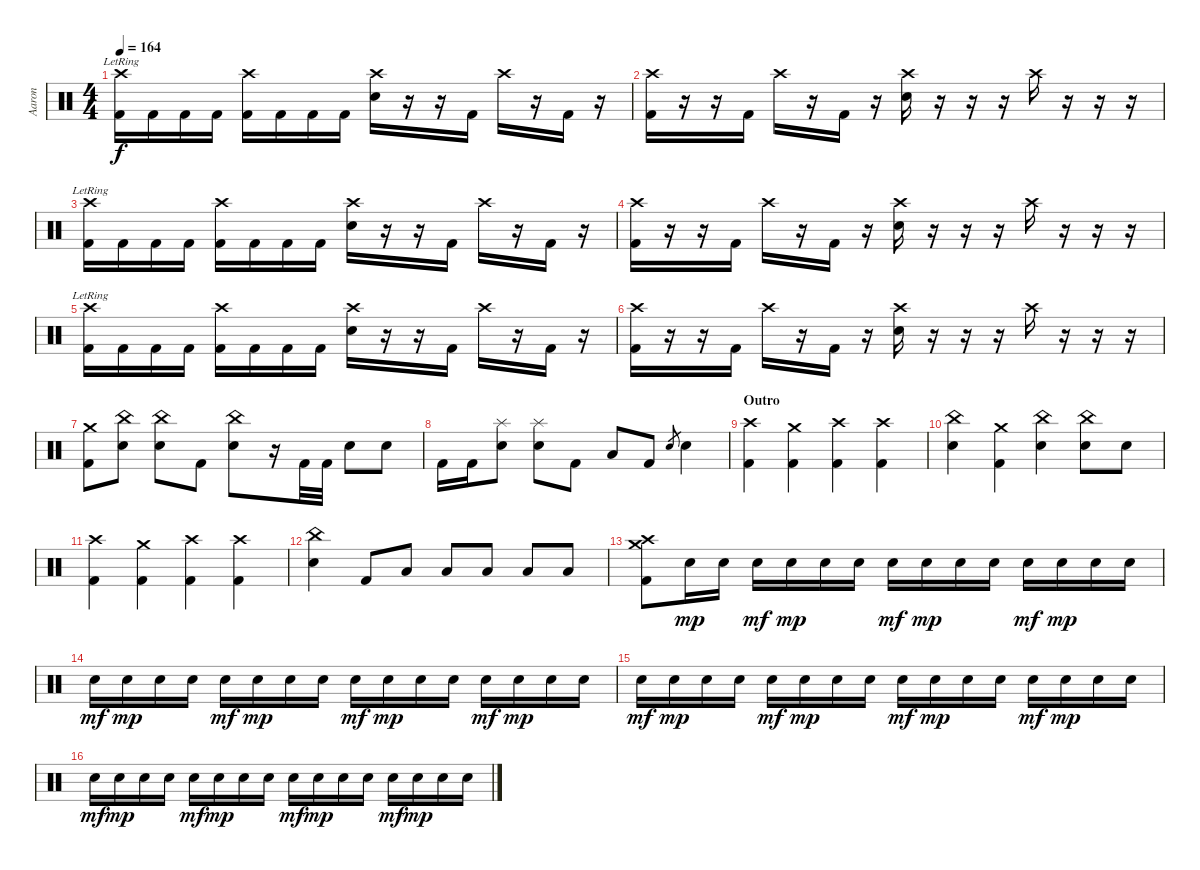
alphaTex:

\track ("Aaron" "Aaron") {instrument percussion}
\staff {score}
\articulation defaults
\ts (4 4)
\tempo 164
\clef neutral
\ks c
("Crash high (hit)"{lr} "Kick (hit) 2").16{dy f} "Kick (hit) 2".16 "Kick (hit) 2".16 "Kick (hit) 2".16 ("Crash high (hit)" "Kick (hit) 2").16 "Kick (hit) 2".16 "Kick (hit) 2".16 "Kick (hit) 2".16 ("Crash high (hit)" "Snare (hit) 2").16 r.16 r.16 "Kick (hit) 2".16 "Crash high (hit)".16 r.16 "Kick (hit) 2".16 r.16 |
("Crash high (hit)" "Kick (hit) 2").16 r.16 r.16 "Kick (hit) 2".16 "Crash high (hit)".16 r.16 "Kick (hit) 2".16 r.16 ("Crash high (hit)" "Snare (hit) 2").16 r.16 r.16 r.16 "Crash high (hit)".16 r.16 r.16 r.16 |
("Crash high (hit)"{lr} "Kick (hit) 2").16 "Kick (hit) 2".16 "Kick (hit) 2".16 "Kick (hit) 2".16 ("Crash high (hit)" "Kick (hit) 2").16 "Kick (hit) 2".16 "Kick (hit) 2".16 "Kick (hit) 2".16 ("Crash high (hit)" "Snare (hit) 2").16 r.16 r.16 "Kick (hit) 2".16 "Crash high (hit)".16 r.16 "Kick (hit) 2".16 r.16 |
("Crash high (hit)" "Kick (hit) 2").16 r.16 r.16 "Kick (hit) 2".16 "Crash high (hit)".16 r.16 "Kick (hit) 2".16 r.16 ("Crash high (hit)" "Snare (hit) 2").16 r.16 r.16 r.16 "Crash high (hit)".16 r.16 r.16 r.16 |
("Crash high (hit)"{lr} "Kick (hit) 2").16 "Kick (hit) 2".16 "Kick (hit) 2".16 "Kick (hit) 2".16 ("Crash high (hit)" "Kick (hit) 2").16 "Kick (hit) 2".16 "Kick (hit) 2".16 "Kick (hit) 2".16 ("Crash high (hit)" "Snare (hit) 2").16 r.16 r.16 "Kick (hit) 2".16 "Crash high (hit)".16 r.16 "Kick (hit) 2".16 r.16 |
("Crash high (hit)" "Kick (hit) 2").16 r.16 r.16 "Kick (hit) 2".16 "Crash high (hit)".16 r.16 "Kick (hit) 2".16 r.16 ("Crash high (hit)" "Snare (hit) 2").16 r.16 r.16 r.16 "Crash high (hit)".16 r.16 r.16 r.16 |
("Crash medium (hit)" "Kick (hit) 2").8 ("China (hit)" "Snare (hit) 2").8 ("China (hit)" "Snare (hit) 2").8 "Kick (hit) 2".8 ("China (hit)" "Snare (hit) 2").8 r.16 "Kick (hit) 2".32 "Kick (hit) 2".32 "Snare (hit) 2".8 "Snare (hit) 2".8 |
"Kick (hit) 2".16 "Kick (hit) 2".16 ("Splash (hit)" "Snare (hit) 2").8 ("Splash (hit)" "Snare (hit) 2").8 "Kick (hit) 2".8 "Low Tom (hit)".8 "Kick (hit) 2".8 "Snare (hit) 2".8{gr} "Snare (hit) 2".4 |
\section ("" "Outro")
("Crash high (hit)" "Kick (hit) 2").4 ("Crash medium (hit)" "Kick (hit) 2").4 ("Crash high (hit)" "Kick (hit) 2").4 ("Crash high (hit)" "Kick (hit) 2").4 |
("China (hit)" "Snare (hit) 2").4 ("Crash medium (hit)" "Kick (hit) 2").4 ("China (hit)" "Snare (hit) 2").4 ("China (hit)" "Snare (hit) 2").8 "Snare (hit) 2".8 |
("Crash high (hit)" "Kick (hit) 2").4 ("Crash medium (hit)" "Kick (hit) 2").4 ("Crash high (hit)" "Kick (hit) 2").4 ("Crash high (hit)" "Kick (hit) 2").4 |
("China (hit)" "Snare (hit) 2").4 "Kick (hit) 2".8 "Low Tom (hit)".8 "Low Tom (hit)".8 "Low Tom (hit)".8 "Low Tom (hit)".8 "Low Tom (hit)".8 |
("Crash high (hit)" "Crash medium (hit)" "Kick (hit) 2").8 "Snare (hit) 2".16{dy mp} "Snare (hit) 2".16 "Snare (hit) 2".16{dy mf} "Snare (hit) 2".16{dy mp} "Snare (hit) 2".16 "Snare (hit) 2".16 "Snare (hit) 2".16{dy mf} "Snare (hit) 2".16{dy mp} "Snare (hit) 2".16 "Snare (hit) 2".16 "Snare (hit) 2".16{dy mf} "Snare (hit) 2".16{dy mp} "Snare (hit) 2".16 "Snare (hit) 2".16 |
"Snare (hit) 2".16{dy mf} "Snare (hit) 2".16{dy mp} "Snare (hit) 2".16 "Snare (hit) 2".16 "Snare (hit) 2".16{dy mf} "Snare (hit) 2".16{dy mp} "Snare (hit) 2".16 "Snare (hit) 2".16 "Snare (hit) 2".16{dy mf} "Snare (hit) 2".16{dy mp} "Snare (hit) 2".16 "Snare (hit) 2".16 "Snare (hit) 2".16{dy mf} "Snare (hit) 2".16{dy mp} "Snare (hit) 2".16 "Snare (hit) 2".16 |
"Snare (hit) 2".16{dy mf} "Snare (hit) 2".16{dy mp} "Snare (hit) 2".16 "Snare (hit) 2".16 "Snare (hit) 2".16{dy mf} "Snare (hit) 2".16{dy mp} "Snare (hit) 2".16 "Snare (hit) 2".16 "Snare (hit) 2".16{dy mf} "Snare (hit) 2".16{dy mp} "Snare (hit) 2".16 "Snare (hit) 2".16 "Snare (hit) 2".16{dy mf} "Snare (hit) 2".16{dy mp} "Snare (hit) 2".16 "Snare (hit) 2".16 |
"Snare (hit) 2".16{dy mf} "Snare (hit) 2".16{dy mp} "Snare (hit) 2".16 "Snare (hit) 2".16 "Snare (hit) 2".16{dy mf} "Snare (hit) 2".16{dy mp} "Snare (hit) 2".16 "Snare (hit) 2".16 "Snare (hit) 2".16{dy mf} "Snare (hit) 2".16{dy mp} "Snare (hit) 2".16 "Snare (hit) 2".16 "Snare (hit) 2".16{dy mf} "Snare (hit) 2".16{dy mp} "Snare (hit) 2".16 "Snare (hit) 2".16
